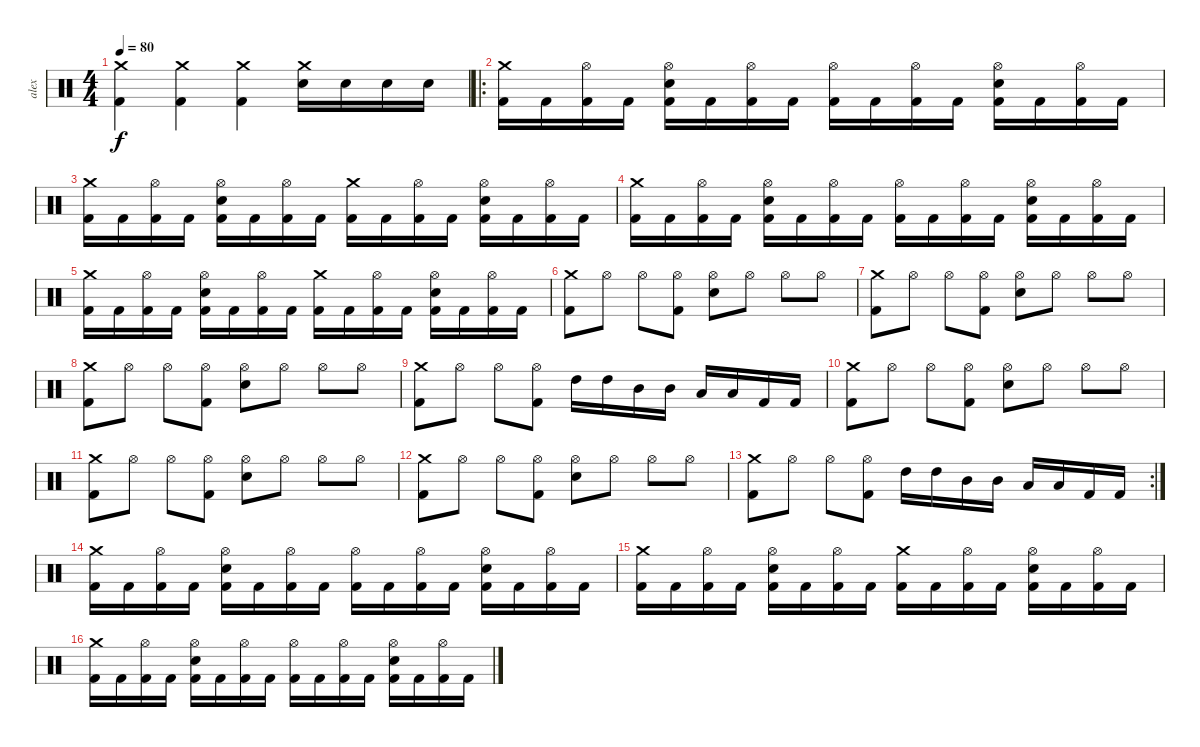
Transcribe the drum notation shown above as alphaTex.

\track ("alex" "alex") {instrument percussion}
\staff {score}
\articulation defaults
\ts (4 4)
\tempo 80
\clef neutral
\ks c
("Crash medium (hit)" "Kick (hit) 2").4{dy f} ("Crash medium (hit)" "Kick (hit) 2").4 ("Crash medium (hit)" "Kick (hit) 2").4 ("Crash medium (hit)" "Snare (hit) 2").16 "Snare (hit) 2".16 "Snare (hit) 2".16 "Snare (hit) 2".16 |
\ro
("Kick (hit) 2" "Crash medium (hit)").16 "Kick (hit) 2".16 ("Kick (hit) 2" "Hi-Hat (open)").16 "Kick (hit) 2".16 ("Snare (hit) 2" "Kick (hit) 2" "Hi-Hat (open)").16 "Kick (hit) 2".16 ("Kick (hit) 2" "Hi-Hat (open)").16 "Kick (hit) 2".16 ("Kick (hit) 2" "Hi-Hat (open)").16 "Kick (hit) 2".16 ("Kick (hit) 2" "Hi-Hat (open)").16 "Kick (hit) 2".16 ("Snare (hit) 2" "Kick (hit) 2" "Hi-Hat (open)").16 "Kick (hit) 2".16 ("Kick (hit) 2" "Hi-Hat (open)").16 "Kick (hit) 2".16 |
("Kick (hit) 2" "Crash medium (hit)").16 "Kick (hit) 2".16 ("Kick (hit) 2" "Hi-Hat (open)").16 "Kick (hit) 2".16 ("Snare (hit) 2" "Kick (hit) 2" "Hi-Hat (open)").16 "Kick (hit) 2".16 ("Kick (hit) 2" "Hi-Hat (open)").16 "Kick (hit) 2".16 ("Kick (hit) 2" "Crash medium (hit)").16 "Kick (hit) 2".16 ("Kick (hit) 2" "Hi-Hat (open)").16 "Kick (hit) 2".16 ("Snare (hit) 2" "Kick (hit) 2" "Hi-Hat (open)").16 "Kick (hit) 2".16 ("Kick (hit) 2" "Hi-Hat (open)").16 "Kick (hit) 2".16 |
("Kick (hit) 2" "Crash medium (hit)").16 "Kick (hit) 2".16 ("Kick (hit) 2" "Hi-Hat (open)").16 "Kick (hit) 2".16 ("Snare (hit) 2" "Kick (hit) 2" "Hi-Hat (open)").16 "Kick (hit) 2".16 ("Kick (hit) 2" "Hi-Hat (open)").16 "Kick (hit) 2".16 ("Kick (hit) 2" "Hi-Hat (open)").16 "Kick (hit) 2".16 ("Kick (hit) 2" "Hi-Hat (open)").16 "Kick (hit) 2".16 ("Snare (hit) 2" "Kick (hit) 2" "Hi-Hat (open)").16 "Kick (hit) 2".16 ("Kick (hit) 2" "Hi-Hat (open)").16 "Kick (hit) 2".16 |
("Kick (hit) 2" "Crash medium (hit)").16 "Kick (hit) 2".16 ("Kick (hit) 2" "Hi-Hat (open)").16 "Kick (hit) 2".16 ("Snare (hit) 2" "Kick (hit) 2" "Hi-Hat (open)").16 "Kick (hit) 2".16 ("Kick (hit) 2" "Hi-Hat (open)").16 "Kick (hit) 2".16 ("Kick (hit) 2" "Crash medium (hit)").16 "Kick (hit) 2".16 ("Kick (hit) 2" "Hi-Hat (open)").16 "Kick (hit) 2".16 ("Snare (hit) 2" "Kick (hit) 2" "Hi-Hat (open)").16 "Kick (hit) 2".16 ("Kick (hit) 2" "Hi-Hat (open)").16 "Kick (hit) 2".16 |
("Kick (hit) 2" "Crash medium (hit)").8 "Hi-Hat (open)".8 "Hi-Hat (open)".8 ("Kick (hit) 2" "Hi-Hat (open)").8 ("Snare (hit) 2" "Hi-Hat (open)").8 "Hi-Hat (open)".8 "Hi-Hat (open)".8 "Hi-Hat (open)".8 |
("Kick (hit) 2" "Crash medium (hit)").8 "Hi-Hat (open)".8 "Hi-Hat (open)".8 ("Kick (hit) 2" "Hi-Hat (open)").8 ("Snare (hit) 2" "Hi-Hat (open)").8 "Hi-Hat (open)".8 "Hi-Hat (open)".8 "Hi-Hat (open)".8 |
("Kick (hit) 2" "Crash medium (hit)").8 "Hi-Hat (open)".8 "Hi-Hat (open)".8 ("Kick (hit) 2" "Hi-Hat (open)").8 ("Snare (hit) 2" "Hi-Hat (open)").8 "Hi-Hat (open)".8 "Hi-Hat (open)".8 "Hi-Hat (open)".8 |
("Kick (hit) 2" "Crash medium (hit)").8 "Hi-Hat (open)".8 "Hi-Hat (open)".8 ("Kick (hit) 2" "Hi-Hat (open)").8 "High Tom (hit)".16 "High Tom (hit)".16 "Mid Tom (hit)".16 "Mid Tom (hit)".16 "Low Tom (hit)".16 "Low Tom (hit)".16 "Kick (hit) 2".16 "Kick (hit) 2".16 |
("Kick (hit) 2" "Crash medium (hit)").8 "Hi-Hat (open)".8 "Hi-Hat (open)".8 ("Kick (hit) 2" "Hi-Hat (open)").8 ("Snare (hit) 2" "Hi-Hat (open)").8 "Hi-Hat (open)".8 "Hi-Hat (open)".8 "Hi-Hat (open)".8 |
("Kick (hit) 2" "Crash medium (hit)").8 "Hi-Hat (open)".8 "Hi-Hat (open)".8 ("Kick (hit) 2" "Hi-Hat (open)").8 ("Snare (hit) 2" "Hi-Hat (open)").8 "Hi-Hat (open)".8 "Hi-Hat (open)".8 "Hi-Hat (open)".8 |
("Kick (hit) 2" "Crash medium (hit)").8 "Hi-Hat (open)".8 "Hi-Hat (open)".8 ("Kick (hit) 2" "Hi-Hat (open)").8 ("Snare (hit) 2" "Hi-Hat (open)").8 "Hi-Hat (open)".8 "Hi-Hat (open)".8 "Hi-Hat (open)".8 |
\rc 2
("Kick (hit) 2" "Crash medium (hit)").8 "Hi-Hat (open)".8 "Hi-Hat (open)".8 ("Kick (hit) 2" "Hi-Hat (open)").8 "High Tom (hit)".16 "High Tom (hit)".16 "Mid Tom (hit)".16 "Mid Tom (hit)".16 "Low Tom (hit)".16 "Low Tom (hit)".16 "Kick (hit) 2".16 "Kick (hit) 2".16 |
("Kick (hit) 2" "Crash medium (hit)").16 "Kick (hit) 2".16 ("Kick (hit) 2" "Hi-Hat (open)").16 "Kick (hit) 2".16 ("Snare (hit) 2" "Kick (hit) 2" "Hi-Hat (open)").16 "Kick (hit) 2".16 ("Kick (hit) 2" "Hi-Hat (open)").16 "Kick (hit) 2".16 ("Kick (hit) 2" "Hi-Hat (open)").16 "Kick (hit) 2".16 ("Kick (hit) 2" "Hi-Hat (open)").16 "Kick (hit) 2".16 ("Snare (hit) 2" "Kick (hit) 2" "Hi-Hat (open)").16 "Kick (hit) 2".16 ("Kick (hit) 2" "Hi-Hat (open)").16 "Kick (hit) 2".16 |
("Kick (hit) 2" "Crash medium (hit)").16 "Kick (hit) 2".16 ("Kick (hit) 2" "Hi-Hat (open)").16 "Kick (hit) 2".16 ("Snare (hit) 2" "Kick (hit) 2" "Hi-Hat (open)").16 "Kick (hit) 2".16 ("Kick (hit) 2" "Hi-Hat (open)").16 "Kick (hit) 2".16 ("Kick (hit) 2" "Crash medium (hit)").16 "Kick (hit) 2".16 ("Kick (hit) 2" "Hi-Hat (open)").16 "Kick (hit) 2".16 ("Snare (hit) 2" "Kick (hit) 2" "Hi-Hat (open)").16 "Kick (hit) 2".16 ("Kick (hit) 2" "Hi-Hat (open)").16 "Kick (hit) 2".16 |
("Kick (hit) 2" "Crash medium (hit)").16 "Kick (hit) 2".16 ("Kick (hit) 2" "Hi-Hat (open)").16 "Kick (hit) 2".16 ("Snare (hit) 2" "Kick (hit) 2" "Hi-Hat (open)").16 "Kick (hit) 2".16 ("Kick (hit) 2" "Hi-Hat (open)").16 "Kick (hit) 2".16 ("Kick (hit) 2" "Hi-Hat (open)").16 "Kick (hit) 2".16 ("Kick (hit) 2" "Hi-Hat (open)").16 "Kick (hit) 2".16 ("Snare (hit) 2" "Kick (hit) 2" "Hi-Hat (open)").16 "Kick (hit) 2".16 ("Kick (hit) 2" "Hi-Hat (open)").16 "Kick (hit) 2".16
